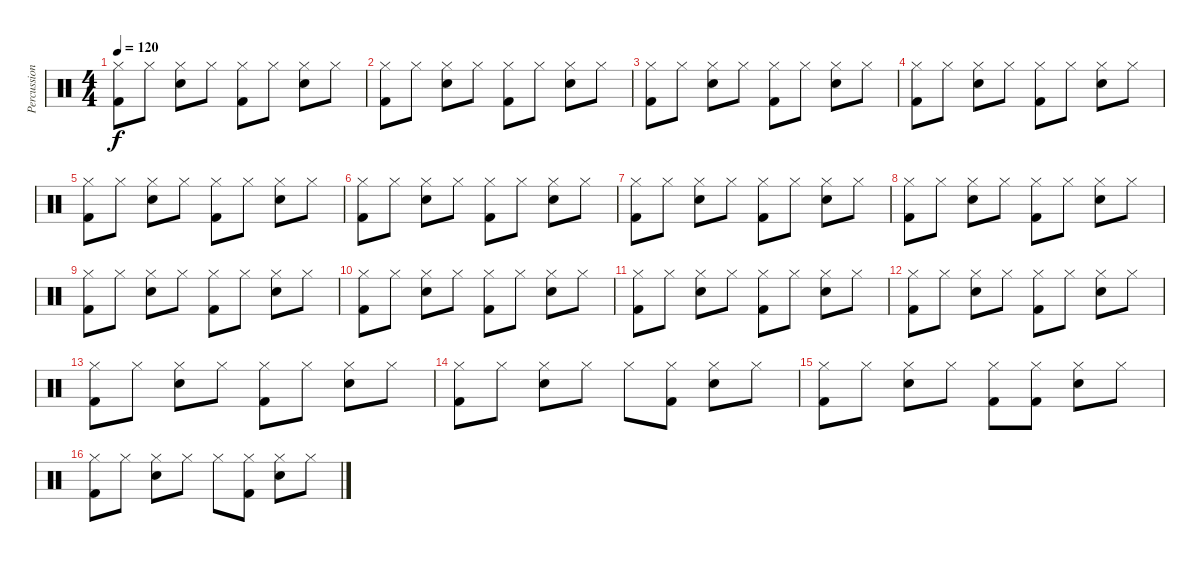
\track ("Percussioni" "Percussion") {instrument percussion}
\staff {score}
\articulation defaults
\ts (4 4)
\tempo 120
\clef neutral
\ks c
("Hi-Hat (closed)" "Kick (hit) 2").8{dy f} "Hi-Hat (closed)".8 ("Hi-Hat (closed)" "Snare (hit) 2").8 "Hi-Hat (closed)".8 ("Hi-Hat (closed)" "Kick (hit) 2").8 "Hi-Hat (closed)".8 ("Hi-Hat (closed)" "Snare (hit) 2").8 "Hi-Hat (closed)".8 |
("Hi-Hat (closed)" "Kick (hit) 2").8 "Hi-Hat (closed)".8 ("Hi-Hat (closed)" "Snare (hit) 2").8 "Hi-Hat (closed)".8 ("Hi-Hat (closed)" "Kick (hit) 2").8 "Hi-Hat (closed)".8 ("Hi-Hat (closed)" "Snare (hit) 2").8 "Hi-Hat (closed)".8 |
("Hi-Hat (closed)" "Kick (hit) 2").8 "Hi-Hat (closed)".8 ("Hi-Hat (closed)" "Snare (hit) 2").8 "Hi-Hat (closed)".8 ("Hi-Hat (closed)" "Kick (hit) 2").8 "Hi-Hat (closed)".8 ("Hi-Hat (closed)" "Snare (hit) 2").8 "Hi-Hat (closed)".8 |
("Hi-Hat (closed)" "Kick (hit) 2").8 "Hi-Hat (closed)".8 ("Hi-Hat (closed)" "Snare (hit) 2").8 "Hi-Hat (closed)".8 ("Hi-Hat (closed)" "Kick (hit) 2").8 "Hi-Hat (closed)".8 ("Hi-Hat (closed)" "Snare (hit) 2").8 "Hi-Hat (closed)".8 |
("Hi-Hat (closed)" "Kick (hit) 2").8 "Hi-Hat (closed)".8 ("Hi-Hat (closed)" "Snare (hit) 2").8 "Hi-Hat (closed)".8 ("Hi-Hat (closed)" "Kick (hit) 2").8 "Hi-Hat (closed)".8 ("Hi-Hat (closed)" "Snare (hit) 2").8 "Hi-Hat (closed)".8 |
("Hi-Hat (closed)" "Kick (hit) 2").8 "Hi-Hat (closed)".8 ("Hi-Hat (closed)" "Snare (hit) 2").8 "Hi-Hat (closed)".8 ("Hi-Hat (closed)" "Kick (hit) 2").8 "Hi-Hat (closed)".8 ("Hi-Hat (closed)" "Snare (hit) 2").8 "Hi-Hat (closed)".8 |
("Hi-Hat (closed)" "Kick (hit) 2").8 "Hi-Hat (closed)".8 ("Hi-Hat (closed)" "Snare (hit) 2").8 "Hi-Hat (closed)".8 ("Hi-Hat (closed)" "Kick (hit) 2").8 "Hi-Hat (closed)".8 ("Hi-Hat (closed)" "Snare (hit) 2").8 "Hi-Hat (closed)".8 |
("Hi-Hat (closed)" "Kick (hit) 2").8 "Hi-Hat (closed)".8 ("Hi-Hat (closed)" "Snare (hit) 2").8 "Hi-Hat (closed)".8 ("Hi-Hat (closed)" "Kick (hit) 2").8 "Hi-Hat (closed)".8 ("Hi-Hat (closed)" "Snare (hit) 2").8 "Hi-Hat (closed)".8 |
("Hi-Hat (closed)" "Kick (hit) 2").8 "Hi-Hat (closed)".8 ("Hi-Hat (closed)" "Snare (hit) 2").8 "Hi-Hat (closed)".8 ("Hi-Hat (closed)" "Kick (hit) 2").8 "Hi-Hat (closed)".8 ("Hi-Hat (closed)" "Snare (hit) 2").8 "Hi-Hat (closed)".8 |
("Hi-Hat (closed)" "Kick (hit) 2").8 "Hi-Hat (closed)".8 ("Hi-Hat (closed)" "Snare (hit) 2").8 "Hi-Hat (closed)".8 ("Hi-Hat (closed)" "Kick (hit) 2").8 "Hi-Hat (closed)".8 ("Hi-Hat (closed)" "Snare (hit) 2").8 "Hi-Hat (closed)".8 |
("Hi-Hat (closed)" "Kick (hit) 2").8 "Hi-Hat (closed)".8 ("Hi-Hat (closed)" "Snare (hit) 2").8 "Hi-Hat (closed)".8 ("Hi-Hat (closed)" "Kick (hit) 2").8 "Hi-Hat (closed)".8 ("Hi-Hat (closed)" "Snare (hit) 2").8 "Hi-Hat (closed)".8 |
("Hi-Hat (closed)" "Kick (hit) 2").8 "Hi-Hat (closed)".8 ("Hi-Hat (closed)" "Snare (hit) 2").8 "Hi-Hat (closed)".8 ("Hi-Hat (closed)" "Kick (hit) 2").8 "Hi-Hat (closed)".8 ("Hi-Hat (closed)" "Snare (hit) 2").8 "Hi-Hat (closed)".8 |
("Hi-Hat (closed)" "Kick (hit) 2").8 "Hi-Hat (closed)".8 ("Hi-Hat (closed)" "Snare (hit) 2").8 "Hi-Hat (closed)".8 ("Hi-Hat (closed)" "Kick (hit) 2").8 "Hi-Hat (closed)".8 ("Hi-Hat (closed)" "Snare (hit) 2").8 "Hi-Hat (closed)".8 |
("Hi-Hat (closed)" "Kick (hit) 2").8 "Hi-Hat (closed)".8 ("Hi-Hat (closed)" "Snare (hit) 2").8 "Hi-Hat (closed)".8 "Hi-Hat (closed)".8 ("Hi-Hat (closed)" "Kick (hit) 2").8 ("Hi-Hat (closed)" "Snare (hit) 2").8 "Hi-Hat (closed)".8 |
("Hi-Hat (closed)" "Kick (hit) 2").8 "Hi-Hat (closed)".8 ("Hi-Hat (closed)" "Snare (hit) 2").8 "Hi-Hat (closed)".8 ("Hi-Hat (closed)" "Kick (hit) 2").8 ("Hi-Hat (closed)" "Kick (hit) 2").8 ("Hi-Hat (closed)" "Snare (hit) 2").8 "Hi-Hat (closed)".8 |
("Hi-Hat (closed)" "Kick (hit) 2").8 "Hi-Hat (closed)".8 ("Hi-Hat (closed)" "Snare (hit) 2").8 "Hi-Hat (closed)".8 "Hi-Hat (closed)".8 ("Hi-Hat (closed)" "Kick (hit) 2").8 ("Hi-Hat (closed)" "Snare (hit) 2").8 "Hi-Hat (closed)".8
